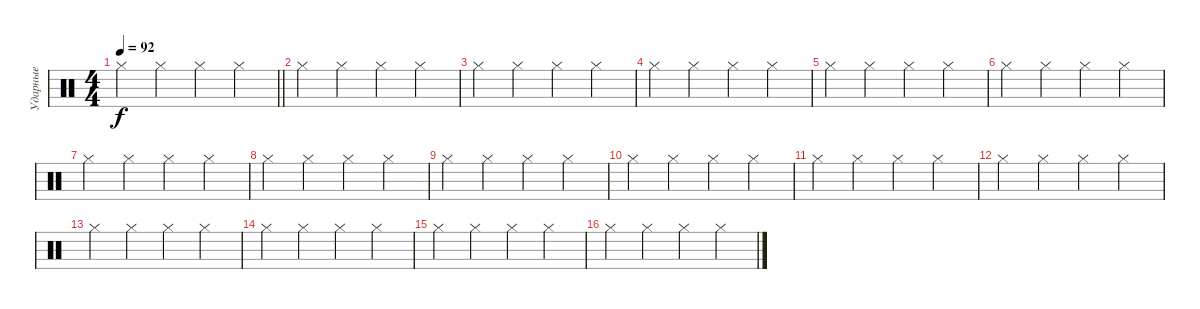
\track ("Ударные" "Ударные") {instrument percussion}
\staff {score}
\articulation defaults
\ts (4 4)
\tempo 92
\clef neutral
\barLineRight lightlight
\ks c "Hi-Hat (closed)".4{dy f} "Hi-Hat (closed)".4 "Hi-Hat (closed)".4 "Hi-Hat (closed)".4
|
"Hi-Hat (closed)".4 "Hi-Hat (closed)".4 "Hi-Hat (closed)".4 "Hi-Hat (closed)".4 |
"Hi-Hat (closed)".4 "Hi-Hat (closed)".4 "Hi-Hat (closed)".4 "Hi-Hat (closed)".4 |
"Hi-Hat (closed)".4 "Hi-Hat (closed)".4 "Hi-Hat (closed)".4 "Hi-Hat (closed)".4 |
"Hi-Hat (closed)".4 "Hi-Hat (closed)".4 "Hi-Hat (closed)".4 "Hi-Hat (closed)".4 |
"Hi-Hat (closed)".4 "Hi-Hat (closed)".4 "Hi-Hat (closed)".4 "Hi-Hat (closed)".4 |
"Hi-Hat (closed)".4 "Hi-Hat (closed)".4 "Hi-Hat (closed)".4 "Hi-Hat (closed)".4 |
"Hi-Hat (closed)".4 "Hi-Hat (closed)".4 "Hi-Hat (closed)".4 "Hi-Hat (closed)".4 |
"Hi-Hat (closed)".4 "Hi-Hat (closed)".4 "Hi-Hat (closed)".4 "Hi-Hat (closed)".4 |
"Hi-Hat (closed)".4 "Hi-Hat (closed)".4 "Hi-Hat (closed)".4 "Hi-Hat (closed)".4 |
"Hi-Hat (closed)".4 "Hi-Hat (closed)".4 "Hi-Hat (closed)".4 "Hi-Hat (closed)".4 |
"Hi-Hat (closed)".4 "Hi-Hat (closed)".4 "Hi-Hat (closed)".4 "Hi-Hat (closed)".4 |
"Hi-Hat (closed)".4 "Hi-Hat (closed)".4 "Hi-Hat (closed)".4 "Hi-Hat (closed)".4 |
"Hi-Hat (closed)".4 "Hi-Hat (closed)".4 "Hi-Hat (closed)".4 "Hi-Hat (closed)".4 |
"Hi-Hat (closed)".4 "Hi-Hat (closed)".4 "Hi-Hat (closed)".4 "Hi-Hat (closed)".4 |
"Hi-Hat (closed)".4 "Hi-Hat (closed)".4 "Hi-Hat (closed)".4 "Hi-Hat (closed)".4
